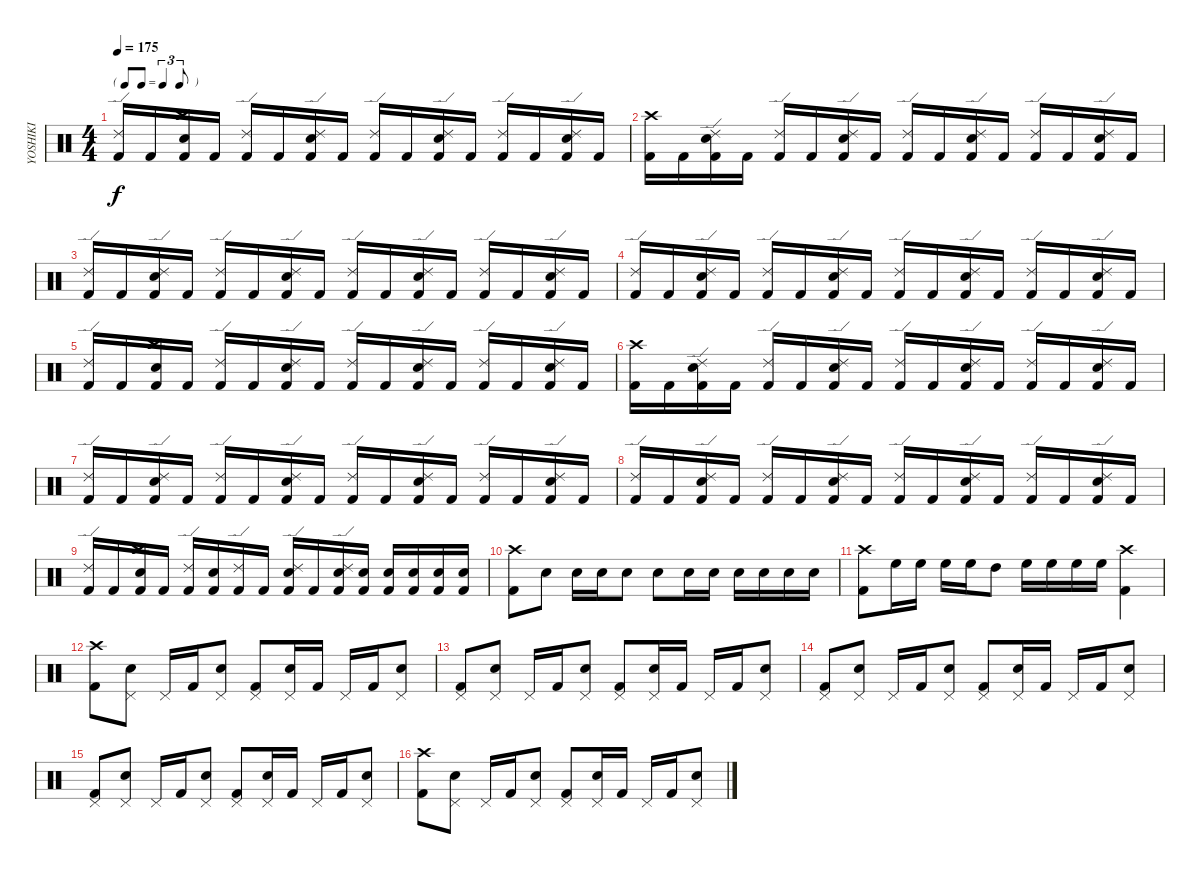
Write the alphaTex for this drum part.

\track ("YOSHIKI" "YOSHIKI") {instrument percussion}
\staff {score}
\articulation defaults
\ts (4 4)
\tf triplet8th
\tempo 175
\clef neutral
\ks c
("Ride (edge) 2" "Kick (hit) 2").16{dy f} "Kick (hit) 2".16 ("Crash high (hit)" "Snare (hit) 2" "Kick (hit) 2").16 "Kick (hit) 2".16 ("Ride (edge) 2" "Kick (hit) 2").16 "Kick (hit) 2".16 ("Ride (edge) 2" "Snare (hit) 2" "Kick (hit) 2").16 "Kick (hit) 2".16 ("Ride (edge) 2" "Kick (hit) 2").16 "Kick (hit) 2".16 ("Ride (edge) 2" "Snare (hit) 2" "Kick (hit) 2").16 "Kick (hit) 2".16 ("Ride (edge) 2" "Kick (hit) 2").16 "Kick (hit) 2".16 ("Ride (edge) 2" "Snare (hit) 2" "Kick (hit) 2").16 "Kick (hit) 2".16 |
("Crash high (hit)" "Kick (hit) 2").16 "Kick (hit) 2".16 ("Ride (edge) 2" "Snare (hit) 2" "Kick (hit) 2").16 "Kick (hit) 2".16 ("Ride (edge) 2" "Kick (hit) 2").16 "Kick (hit) 2".16 ("Ride (edge) 2" "Snare (hit) 2" "Kick (hit) 2").16 "Kick (hit) 2".16 ("Ride (edge) 2" "Kick (hit) 2").16 "Kick (hit) 2".16 ("Ride (edge) 2" "Snare (hit) 2" "Kick (hit) 2").16 "Kick (hit) 2".16 ("Ride (edge) 2" "Kick (hit) 2").16 "Kick (hit) 2".16 ("Ride (edge) 2" "Snare (hit) 2" "Kick (hit) 2").16 "Kick (hit) 2".16 |
("Ride (edge) 2" "Kick (hit) 2").16 "Kick (hit) 2".16 ("Ride (edge) 2" "Snare (hit) 2" "Kick (hit) 2").16 "Kick (hit) 2".16 ("Ride (edge) 2" "Kick (hit) 2").16 "Kick (hit) 2".16 ("Ride (edge) 2" "Snare (hit) 2" "Kick (hit) 2").16 "Kick (hit) 2".16 ("Ride (edge) 2" "Kick (hit) 2").16 "Kick (hit) 2".16 ("Ride (edge) 2" "Snare (hit) 2" "Kick (hit) 2").16 "Kick (hit) 2".16 ("Ride (edge) 2" "Kick (hit) 2").16 "Kick (hit) 2".16 ("Ride (edge) 2" "Snare (hit) 2" "Kick (hit) 2").16 "Kick (hit) 2".16 |
("Ride (edge) 2" "Kick (hit) 2").16 "Kick (hit) 2".16 ("Ride (edge) 2" "Snare (hit) 2" "Kick (hit) 2").16 "Kick (hit) 2".16 ("Ride (edge) 2" "Kick (hit) 2").16 "Kick (hit) 2".16 ("Ride (edge) 2" "Snare (hit) 2" "Kick (hit) 2").16 "Kick (hit) 2".16 ("Ride (edge) 2" "Kick (hit) 2").16 "Kick (hit) 2".16 ("Ride (edge) 2" "Snare (hit) 2" "Kick (hit) 2").16 "Kick (hit) 2".16 ("Ride (edge) 2" "Kick (hit) 2").16 "Kick (hit) 2".16 ("Ride (edge) 2" "Snare (hit) 2" "Kick (hit) 2").16 "Kick (hit) 2".16 |
("Ride (edge) 2" "Kick (hit) 2").16 "Kick (hit) 2".16 ("Crash high (hit)" "Snare (hit) 2" "Kick (hit) 2").16 "Kick (hit) 2".16 ("Ride (edge) 2" "Kick (hit) 2").16 "Kick (hit) 2".16 ("Ride (edge) 2" "Snare (hit) 2" "Kick (hit) 2").16 "Kick (hit) 2".16 ("Ride (edge) 2" "Kick (hit) 2").16 "Kick (hit) 2".16 ("Ride (edge) 2" "Snare (hit) 2" "Kick (hit) 2").16 "Kick (hit) 2".16 ("Ride (edge) 2" "Kick (hit) 2").16 "Kick (hit) 2".16 ("Ride (edge) 2" "Snare (hit) 2" "Kick (hit) 2").16 "Kick (hit) 2".16 |
("Crash high (hit)" "Kick (hit) 2").16 "Kick (hit) 2".16 ("Ride (edge) 2" "Snare (hit) 2" "Kick (hit) 2").16 "Kick (hit) 2".16 ("Ride (edge) 2" "Kick (hit) 2").16 "Kick (hit) 2".16 ("Ride (edge) 2" "Snare (hit) 2" "Kick (hit) 2").16 "Kick (hit) 2".16 ("Ride (edge) 2" "Kick (hit) 2").16 "Kick (hit) 2".16 ("Ride (edge) 2" "Snare (hit) 2" "Kick (hit) 2").16 "Kick (hit) 2".16 ("Ride (edge) 2" "Kick (hit) 2").16 "Kick (hit) 2".16 ("Ride (edge) 2" "Snare (hit) 2" "Kick (hit) 2").16 "Kick (hit) 2".16 |
("Ride (edge) 2" "Kick (hit) 2").16 "Kick (hit) 2".16 ("Ride (edge) 2" "Snare (hit) 2" "Kick (hit) 2").16 "Kick (hit) 2".16 ("Ride (edge) 2" "Kick (hit) 2").16 "Kick (hit) 2".16 ("Ride (edge) 2" "Snare (hit) 2" "Kick (hit) 2").16 "Kick (hit) 2".16 ("Ride (edge) 2" "Kick (hit) 2").16 "Kick (hit) 2".16 ("Ride (edge) 2" "Snare (hit) 2" "Kick (hit) 2").16 "Kick (hit) 2".16 ("Ride (edge) 2" "Kick (hit) 2").16 "Kick (hit) 2".16 ("Ride (edge) 2" "Snare (hit) 2" "Kick (hit) 2").16 "Kick (hit) 2".16 |
("Ride (edge) 2" "Kick (hit) 2").16 "Kick (hit) 2".16 ("Ride (edge) 2" "Snare (hit) 2" "Kick (hit) 2").16 "Kick (hit) 2".16 ("Ride (edge) 2" "Kick (hit) 2").16 "Kick (hit) 2".16 ("Ride (edge) 2" "Snare (hit) 2" "Kick (hit) 2").16 "Kick (hit) 2".16 ("Ride (edge) 2" "Kick (hit) 2").16 "Kick (hit) 2".16 ("Ride (edge) 2" "Snare (hit) 2" "Kick (hit) 2").16 "Kick (hit) 2".16 ("Ride (edge) 2" "Kick (hit) 2").16 "Kick (hit) 2".16 ("Ride (edge) 2" "Snare (hit) 2" "Kick (hit) 2").16 "Kick (hit) 2".16 |
("Ride (edge) 2" "Kick (hit) 2").16 "Kick (hit) 2".16 ("Crash high (hit)" "Snare (hit) 2" "Kick (hit) 2").16 "Kick (hit) 2".16 ("Ride (edge) 2" "Kick (hit) 2").16 ("Snare (hit) 2" "Kick (hit) 2").16 ("Ride (edge) 2" "Kick (hit) 2").16 "Kick (hit) 2".16 ("Ride (edge) 2" "Snare (hit) 2" "Kick (hit) 2").16 "Kick (hit) 2".16 ("Ride (edge) 2" "Snare (hit) 2" "Kick (hit) 2").16 ("Snare (hit) 2" "Kick (hit) 2").16 ("Snare (hit) 2" "Kick (hit) 2").16 ("Snare (hit) 2" "Kick (hit) 2").16 ("Snare (hit) 2" "Kick (hit) 2").16 ("Snare (hit) 2" "Kick (hit) 2").16 |
("Crash high (hit)" "Kick (hit) 2").8 "Snare (hit) 2".8 "Snare (hit) 2".16 "Snare (hit) 2".16 "Snare (hit) 2".8 "Snare (hit) 2".8 "Snare (hit) 2".16 "Snare (hit) 2".16 "Snare (hit) 2".16 "Snare (hit) 2".16 "Snare (hit) 2".16 "Snare (hit) 2".16 |
("Crash high (hit)" "Kick (hit) 2").8 "High Floor Tom (hit)".16 "High Floor Tom (hit)".16 "High Floor Tom (hit)".16 "High Floor Tom (hit)".16 "High Tom (hit)".8 "High Floor Tom (hit)".16 "High Floor Tom (hit)".16 "High Floor Tom (hit)".16 "High Floor Tom (hit)".16 ("Crash high (hit)" "Kick (hit) 2").4 |
("Crash high (hit)" "Kick (hit) 2").8 ("Pedal Hi-Hat (hit)" "Snare (hit) 2").8 "Pedal Hi-Hat (hit)".16 "Kick (hit) 2".16 ("Pedal Hi-Hat (hit)" "Snare (hit) 2").8 ("Pedal Hi-Hat (hit)" "Kick (hit) 2").8 ("Pedal Hi-Hat (hit)" "Snare (hit) 2").16 "Kick (hit) 2".16 "Pedal Hi-Hat (hit)".16 "Kick (hit) 2".16 ("Pedal Hi-Hat (hit)" "Snare (hit) 2").8 |
("Pedal Hi-Hat (hit)" "Kick (hit) 2").8 ("Pedal Hi-Hat (hit)" "Snare (hit) 2").8 "Pedal Hi-Hat (hit)".16 "Kick (hit) 2".16 ("Pedal Hi-Hat (hit)" "Snare (hit) 2").8 ("Pedal Hi-Hat (hit)" "Kick (hit) 2").8 ("Pedal Hi-Hat (hit)" "Snare (hit) 2").16 "Kick (hit) 2".16 "Pedal Hi-Hat (hit)".16 "Kick (hit) 2".16 ("Pedal Hi-Hat (hit)" "Snare (hit) 2").8 |
("Pedal Hi-Hat (hit)" "Kick (hit) 2").8 ("Pedal Hi-Hat (hit)" "Snare (hit) 2").8 "Pedal Hi-Hat (hit)".16 "Kick (hit) 2".16 ("Pedal Hi-Hat (hit)" "Snare (hit) 2").8 ("Pedal Hi-Hat (hit)" "Kick (hit) 2").8 ("Pedal Hi-Hat (hit)" "Snare (hit) 2").16 "Kick (hit) 2".16 "Pedal Hi-Hat (hit)".16 "Kick (hit) 2".16 ("Pedal Hi-Hat (hit)" "Snare (hit) 2").8 |
("Pedal Hi-Hat (hit)" "Kick (hit) 2").8 ("Pedal Hi-Hat (hit)" "Snare (hit) 2").8 "Pedal Hi-Hat (hit)".16 "Kick (hit) 2".16 ("Pedal Hi-Hat (hit)" "Snare (hit) 2").8 ("Pedal Hi-Hat (hit)" "Kick (hit) 2").8 ("Pedal Hi-Hat (hit)" "Snare (hit) 2").16 "Kick (hit) 2".16 "Pedal Hi-Hat (hit)".16 "Kick (hit) 2".16 ("Pedal Hi-Hat (hit)" "Snare (hit) 2").8 |
("Crash high (hit)" "Kick (hit) 2").8 ("Pedal Hi-Hat (hit)" "Snare (hit) 2").8 "Pedal Hi-Hat (hit)".16 "Kick (hit) 2".16 ("Pedal Hi-Hat (hit)" "Snare (hit) 2").8 ("Pedal Hi-Hat (hit)" "Kick (hit) 2").8 ("Pedal Hi-Hat (hit)" "Snare (hit) 2").16 "Kick (hit) 2".16 "Pedal Hi-Hat (hit)".16 "Kick (hit) 2".16 ("Pedal Hi-Hat (hit)" "Snare (hit) 2").8
